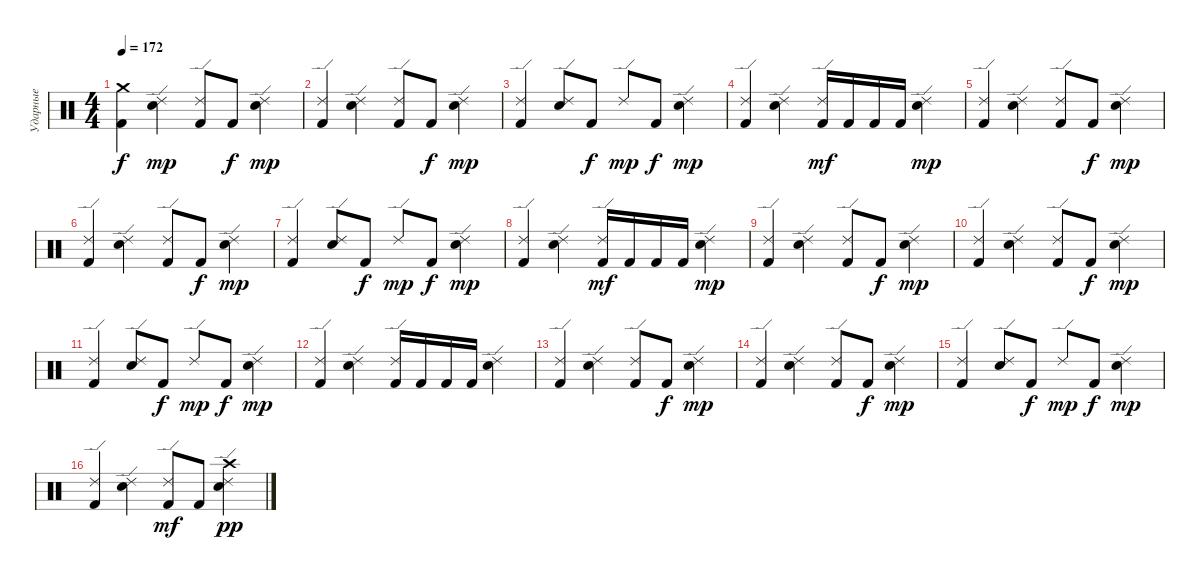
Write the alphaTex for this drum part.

\track ("Ударные" "Ударные") {instrument percussion}
\staff {score}
\articulation defaults
\ts (4 4)
\tempo 172
\clef neutral
\ks c
("Crash medium (hit)" "Kick (hit) 2").4{dy f} ("Ride (edge) 2" "Electric Snare (hit)").4{dy mp} ("Ride (edge) 2" "Kick (hit) 2").8 "Kick (hit) 2".8{dy f} ("Ride (edge) 2" "Electric Snare (hit)").4{dy mp} |
("Ride (edge) 2" "Kick (hit) 2").4 ("Ride (edge) 2" "Electric Snare (hit)").4 ("Ride (edge) 2" "Kick (hit) 2").8 "Kick (hit) 2".8{dy f} ("Ride (edge) 2" "Electric Snare (hit)").4{dy mp} |
("Ride (edge) 2" "Kick (hit) 2").4 ("Ride (edge) 2" "Electric Snare (hit)").8 "Kick (hit) 2".8{dy f} "Ride (edge) 2".8{dy mp} "Kick (hit) 2".8{dy f} ("Ride (edge) 2" "Electric Snare (hit)").4{dy mp} |
("Ride (edge) 2" "Kick (hit) 2").4 ("Ride (edge) 2" "Electric Snare (hit)").4 ("Ride (edge) 2" "Kick (hit) 2").16{dy mf} "Kick (hit) 2".16 "Kick (hit) 2".16 "Kick (hit) 2".16 ("Ride (edge) 2" "Electric Snare (hit)").4{dy mp} |
("Ride (edge) 2" "Kick (hit) 2").4 ("Ride (edge) 2" "Electric Snare (hit)").4 ("Ride (edge) 2" "Kick (hit) 2").8 "Kick (hit) 2".8{dy f} ("Ride (edge) 2" "Electric Snare (hit)").4{dy mp} |
("Ride (edge) 2" "Kick (hit) 2").4 ("Ride (edge) 2" "Electric Snare (hit)").4 ("Ride (edge) 2" "Kick (hit) 2").8 "Kick (hit) 2".8{dy f} ("Ride (edge) 2" "Electric Snare (hit)").4{dy mp} |
("Ride (edge) 2" "Kick (hit) 2").4 ("Ride (edge) 2" "Electric Snare (hit)").8 "Kick (hit) 2".8{dy f} "Ride (edge) 2".8{dy mp} "Kick (hit) 2".8{dy f} ("Ride (edge) 2" "Electric Snare (hit)").4{dy mp} |
("Ride (edge) 2" "Kick (hit) 2").4 ("Ride (edge) 2" "Electric Snare (hit)").4 ("Ride (edge) 2" "Kick (hit) 2").16{dy mf} "Kick (hit) 2".16 "Kick (hit) 2".16 "Kick (hit) 2".16 ("Ride (edge) 2" "Electric Snare (hit)").4{dy mp} |
("Ride (edge) 2" "Kick (hit) 2").4 ("Ride (edge) 2" "Electric Snare (hit)").4 ("Ride (edge) 2" "Kick (hit) 2").8 "Kick (hit) 2".8{dy f} ("Ride (edge) 2" "Electric Snare (hit)").4{dy mp} |
("Ride (edge) 2" "Kick (hit) 2").4 ("Ride (edge) 2" "Electric Snare (hit)").4 ("Ride (edge) 2" "Kick (hit) 2").8 "Kick (hit) 2".8{dy f} ("Ride (edge) 2" "Electric Snare (hit)").4{dy mp} |
("Ride (edge) 2" "Kick (hit) 2").4 ("Ride (edge) 2" "Electric Snare (hit)").8 "Kick (hit) 2".8{dy f} "Ride (edge) 2".8{dy mp} "Kick (hit) 2".8{dy f} ("Ride (edge) 2" "Electric Snare (hit)").4{dy mp} |
("Ride (edge) 2" "Kick (hit) 2").4 ("Ride (edge) 2" "Electric Snare (hit)").4 ("Ride (edge) 2" "Kick (hit) 2").16 "Kick (hit) 2".16 "Kick (hit) 2".16 "Kick (hit) 2".16 ("Ride (edge) 2" "Electric Snare (hit)").4 |
("Ride (edge) 2" "Kick (hit) 2").4 ("Ride (edge) 2" "Electric Snare (hit)").4 ("Ride (edge) 2" "Kick (hit) 2").8 "Kick (hit) 2".8{dy f} ("Ride (edge) 2" "Electric Snare (hit)").4{dy mp} |
("Ride (edge) 2" "Kick (hit) 2").4 ("Ride (edge) 2" "Electric Snare (hit)").4 ("Ride (edge) 2" "Kick (hit) 2").8 "Kick (hit) 2".8{dy f} ("Ride (edge) 2" "Electric Snare (hit)").4{dy mp} |
("Ride (edge) 2" "Kick (hit) 2").4 ("Ride (edge) 2" "Electric Snare (hit)").8 "Kick (hit) 2".8{dy f} "Ride (edge) 2".8{dy mp} "Kick (hit) 2".8{dy f} ("Ride (edge) 2" "Electric Snare (hit)").4{dy mp} |
("Ride (edge) 2" "Kick (hit) 2").4 ("Ride (edge) 2" "Electric Snare (hit)").4 ("Ride (edge) 2" "Kick (hit) 2").8{dy mf} "Kick (hit) 2".8 ("Ride (edge) 2" "Crash high (hit)" "Electric Snare (hit)").4{dy pp}
